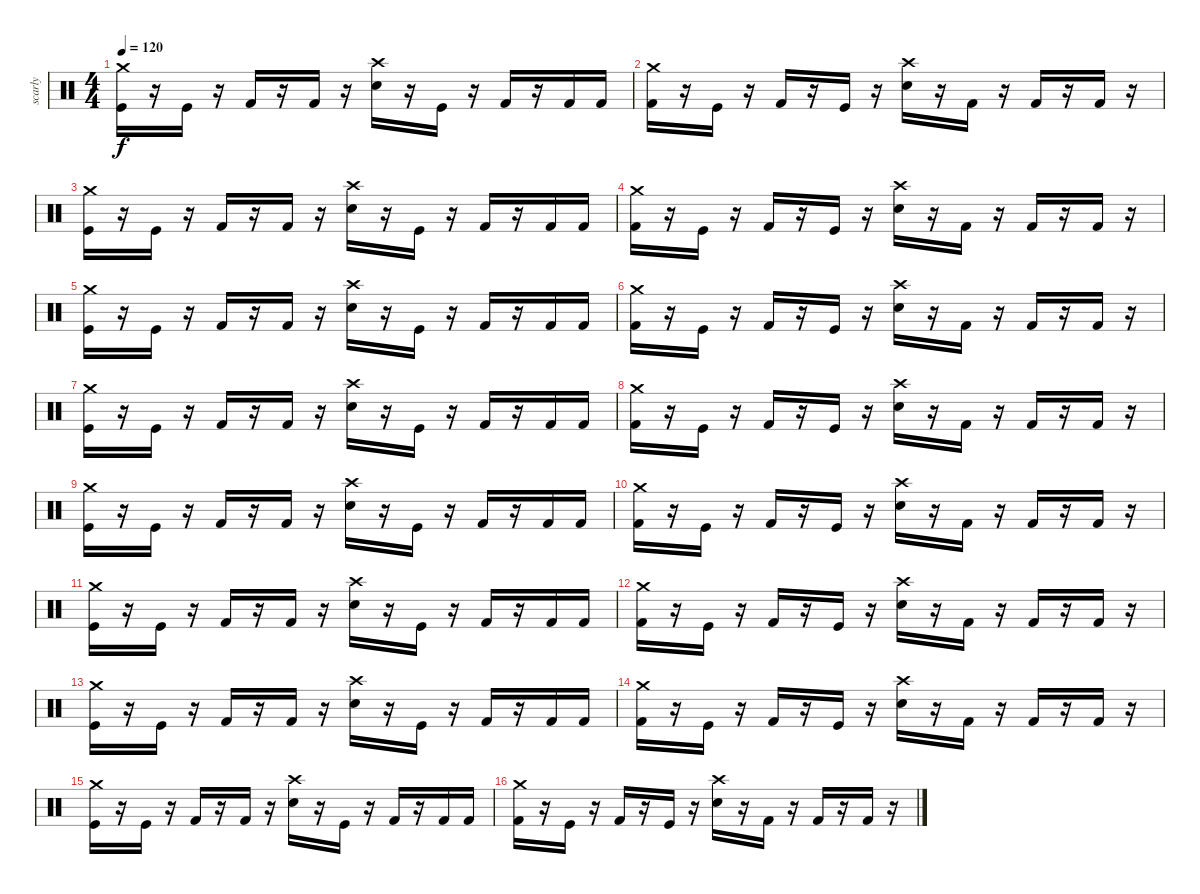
\track ("scarly" "scarly") {instrument percussion}
\staff {score}
\articulation defaults
\ts (4 4)
\tempo 120
\clef neutral
\ks c
("Kick (hit)" "Crash medium (hit)").16{dy f} r.16 "Kick (hit)".16 r.16 "Kick (hit) 2".16 r.16 "Kick (hit) 2".16 r.16 ("Snare (hit) 2" "Crash high (hit)").16 r.16 "Kick (hit)".16 r.16 "Kick (hit) 2".16 r.16 "Kick (hit) 2".16 "Kick (hit) 2".16 |
("Kick (hit) 2" "Crash medium (hit)").16 r.16 "Kick (hit)".16 r.16 "Kick (hit) 2".16 r.16 "Kick (hit)".16 r.16 ("Snare (hit) 2" "Crash high (hit)").16 r.16 "Kick (hit) 2".16 r.16 "Kick (hit) 2".16 r.16 "Kick (hit) 2".16 r.16 |
("Kick (hit)" "Crash medium (hit)").16 r.16 "Kick (hit)".16 r.16 "Kick (hit) 2".16 r.16 "Kick (hit) 2".16 r.16 ("Snare (hit) 2" "Crash high (hit)").16 r.16 "Kick (hit)".16 r.16 "Kick (hit) 2".16 r.16 "Kick (hit) 2".16 "Kick (hit) 2".16 |
("Kick (hit) 2" "Crash medium (hit)").16 r.16 "Kick (hit)".16 r.16 "Kick (hit) 2".16 r.16 "Kick (hit)".16 r.16 ("Snare (hit) 2" "Crash high (hit)").16 r.16 "Kick (hit) 2".16 r.16 "Kick (hit) 2".16 r.16 "Kick (hit) 2".16 r.16 |
("Kick (hit)" "Crash medium (hit)").16 r.16 "Kick (hit)".16 r.16 "Kick (hit) 2".16 r.16 "Kick (hit) 2".16 r.16 ("Snare (hit) 2" "Crash high (hit)").16 r.16 "Kick (hit)".16 r.16 "Kick (hit) 2".16 r.16 "Kick (hit) 2".16 "Kick (hit) 2".16 |
("Kick (hit) 2" "Crash medium (hit)").16 r.16 "Kick (hit)".16 r.16 "Kick (hit) 2".16 r.16 "Kick (hit)".16 r.16 ("Snare (hit) 2" "Crash high (hit)").16 r.16 "Kick (hit) 2".16 r.16 "Kick (hit) 2".16 r.16 "Kick (hit) 2".16 r.16 |
("Kick (hit)" "Crash medium (hit)").16 r.16 "Kick (hit)".16 r.16 "Kick (hit) 2".16 r.16 "Kick (hit) 2".16 r.16 ("Snare (hit) 2" "Crash high (hit)").16 r.16 "Kick (hit)".16 r.16 "Kick (hit) 2".16 r.16 "Kick (hit) 2".16 "Kick (hit) 2".16 |
("Kick (hit) 2" "Crash medium (hit)").16 r.16 "Kick (hit)".16 r.16 "Kick (hit) 2".16 r.16 "Kick (hit)".16 r.16 ("Snare (hit) 2" "Crash high (hit)").16 r.16 "Kick (hit) 2".16 r.16 "Kick (hit) 2".16 r.16 "Kick (hit) 2".16 r.16 |
("Kick (hit)" "Crash medium (hit)").16 r.16 "Kick (hit)".16 r.16 "Kick (hit) 2".16 r.16 "Kick (hit) 2".16 r.16 ("Snare (hit) 2" "Crash high (hit)").16 r.16 "Kick (hit)".16 r.16 "Kick (hit) 2".16 r.16 "Kick (hit) 2".16 "Kick (hit) 2".16 |
("Kick (hit) 2" "Crash medium (hit)").16 r.16 "Kick (hit)".16 r.16 "Kick (hit) 2".16 r.16 "Kick (hit)".16 r.16 ("Snare (hit) 2" "Crash high (hit)").16 r.16 "Kick (hit) 2".16 r.16 "Kick (hit) 2".16 r.16 "Kick (hit) 2".16 r.16 |
("Kick (hit)" "Crash medium (hit)").16 r.16 "Kick (hit)".16 r.16 "Kick (hit) 2".16 r.16 "Kick (hit) 2".16 r.16 ("Snare (hit) 2" "Crash high (hit)").16 r.16 "Kick (hit)".16 r.16 "Kick (hit) 2".16 r.16 "Kick (hit) 2".16 "Kick (hit) 2".16 |
("Kick (hit) 2" "Crash medium (hit)").16 r.16 "Kick (hit)".16 r.16 "Kick (hit) 2".16 r.16 "Kick (hit)".16 r.16 ("Snare (hit) 2" "Crash high (hit)").16 r.16 "Kick (hit) 2".16 r.16 "Kick (hit) 2".16 r.16 "Kick (hit) 2".16 r.16 |
("Kick (hit)" "Crash medium (hit)").16 r.16 "Kick (hit)".16 r.16 "Kick (hit) 2".16 r.16 "Kick (hit) 2".16 r.16 ("Snare (hit) 2" "Crash high (hit)").16 r.16 "Kick (hit)".16 r.16 "Kick (hit) 2".16 r.16 "Kick (hit) 2".16 "Kick (hit) 2".16 |
("Kick (hit) 2" "Crash medium (hit)").16 r.16 "Kick (hit)".16 r.16 "Kick (hit) 2".16 r.16 "Kick (hit)".16 r.16 ("Snare (hit) 2" "Crash high (hit)").16 r.16 "Kick (hit) 2".16 r.16 "Kick (hit) 2".16 r.16 "Kick (hit) 2".16 r.16 |
("Kick (hit)" "Crash medium (hit)").16 r.16 "Kick (hit)".16 r.16 "Kick (hit) 2".16 r.16 "Kick (hit) 2".16 r.16 ("Snare (hit) 2" "Crash high (hit)").16 r.16 "Kick (hit)".16 r.16 "Kick (hit) 2".16 r.16 "Kick (hit) 2".16 "Kick (hit) 2".16 |
("Kick (hit) 2" "Crash medium (hit)").16 r.16 "Kick (hit)".16 r.16 "Kick (hit) 2".16 r.16 "Kick (hit)".16 r.16 ("Snare (hit) 2" "Crash high (hit)").16 r.16 "Kick (hit) 2".16 r.16 "Kick (hit) 2".16 r.16 "Kick (hit) 2".16 r.16
